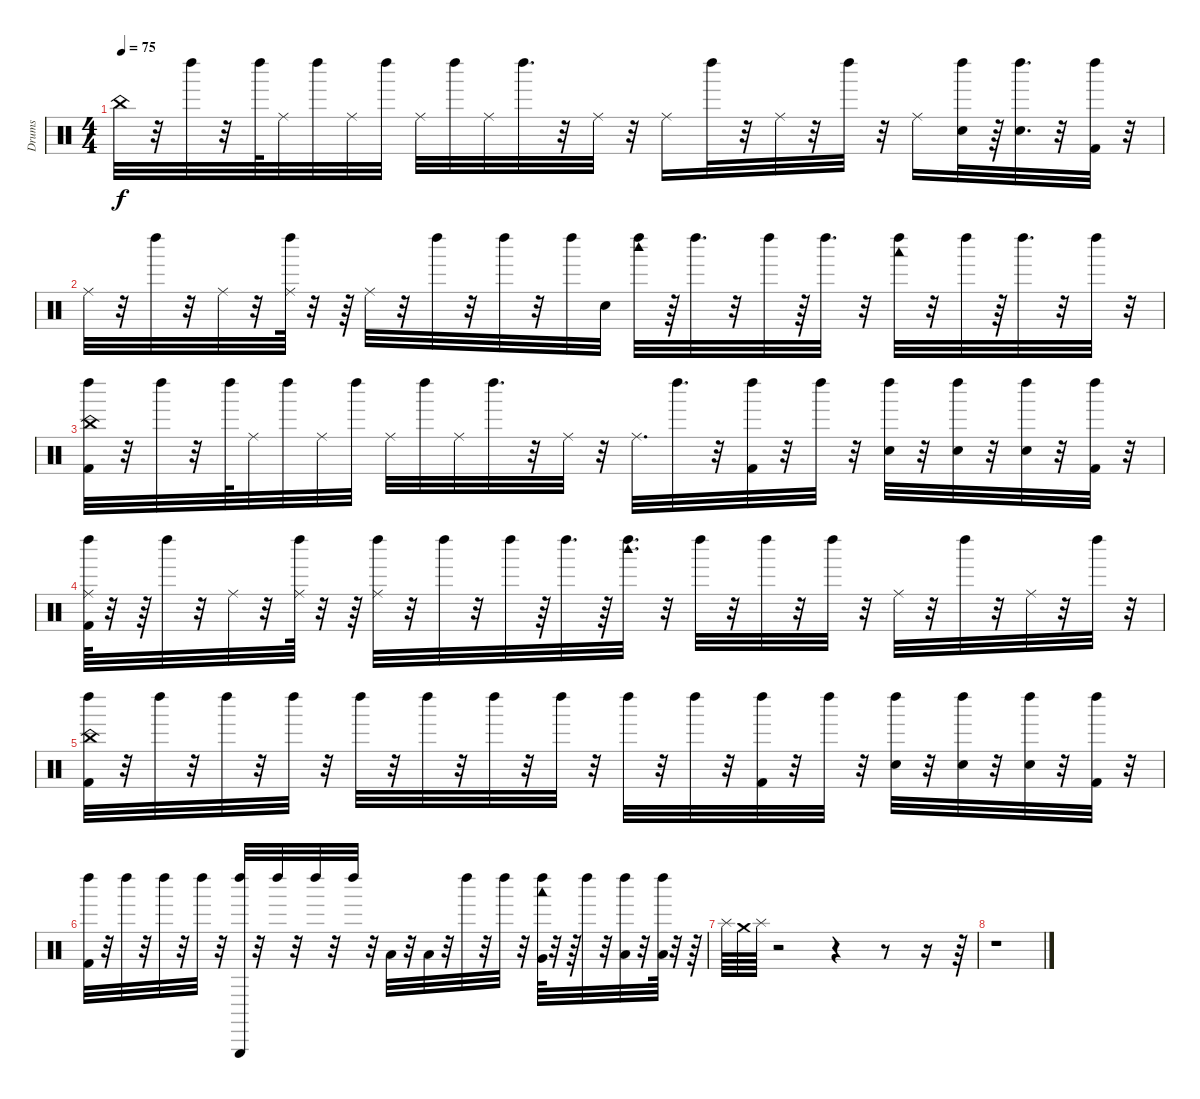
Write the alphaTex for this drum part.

\track ("Drums" "Drums") {instrument percussion}
\staff {score}
\articulation defaults
\ts (4 4)
\tempo 75
\clef neutral
\ks c "China (hit)".32{dy f}
r.32 "Left Maraca (hit)".32 r.32 "Left Maraca (hit)".64 "Ride (middle)".32 "Left Maraca (hit)".32 "Ride (middle)".32 "Left Maraca (hit)".32 "Ride (middle)".32 "Left Maraca (hit)".32 "Ride (middle)".32 "Left Maraca (hit)".32{d} r.32 "Ride (middle)".32 r.32 "Ride (middle)".16 "Left Maraca (hit)".32 r.32 "Ride (middle)".32 r.32 "Left Maraca (hit)".32 r.32 "Ride (middle)".16 ("Snare (hit) 2" "Left Maraca (hit)").32 r.64 ("Snare (hit) 2" "Left Maraca (hit)").32{d} r.32 ("Kick (hit) 2" "Left Maraca (hit)").32 r.32 |
"Ride (middle)".32 r.32 "Left Maraca (hit)".32 r.32 "Ride (middle)".32 r.32 ("Left Maraca (hit)" "Ride (middle)").64 r.32 r.64 "Ride (middle)".32 r.32 "Left Maraca (hit)".32 r.32 "Left Maraca (hit)".32 r.32 "Left Maraca (hit)".32 "Snare (hit) 2".32 ("Woodblock high (hit)" "Left Maraca (hit)").32 r.64 "Left Maraca (hit)".32{d} r.32 "Left Maraca (hit)".32 r.64 "Left Maraca (hit)".32{d} r.32 ("Woodblock low (hit)" "Left Maraca (hit)").32 r.32 "Left Maraca (hit)".32 r.64 "Left Maraca (hit)".32{d} r.32 "Left Maraca (hit)".32 r.32 |
("China (hit)" "Kick (hit) 2" "Left Maraca (hit)").32 r.32 "Left Maraca (hit)".32 r.32 "Left Maraca (hit)".64 "Ride (middle)".32 "Left Maraca (hit)".32 "Ride (middle)".32 "Left Maraca (hit)".32 "Ride (middle)".32 "Left Maraca (hit)".32 "Ride (middle)".32 "Left Maraca (hit)".32{d} r.32 "Ride (middle)".32 r.32 "Ride (middle)".32{d} "Left Maraca (hit)".32{d} r.32 ("Kick (hit) 2" "Left Maraca (hit)").32 r.32 "Left Maraca (hit)".32 r.32 ("Snare (hit) 2" "Left Maraca (hit)").32 r.32 ("Snare (hit) 2" "Left Maraca (hit)").32 r.32 ("Snare (hit) 2" "Left Maraca (hit)").32 r.32 ("Kick (hit) 2" "Left Maraca (hit)").32 r.32 |
("Kick (hit) 2" "Left Maraca (hit)" "Ride (middle)").64 r.32 r.64 "Left Maraca (hit)".32 r.32 "Ride (middle)".32 r.32 ("Left Maraca (hit)" "Ride (middle)").64 r.32 r.64 ("Left Maraca (hit)" "Ride (middle)").32 r.32 "Left Maraca (hit)".32 r.32 "Left Maraca (hit)".32 r.64 "Left Maraca (hit)".32{d} r.64 ("Woodblock high (hit)" "Left Maraca (hit)").32{d} r.32 "Left Maraca (hit)".32 r.32 "Left Maraca (hit)".32 r.32 "Left Maraca (hit)".32 r.32 "Ride (middle)".32 r.32 "Left Maraca (hit)".32 r.32 "Ride (middle)".32 r.32 "Left Maraca (hit)".32 r.32 |
("China (hit)" "Kick (hit) 2" "Left Maraca (hit)").32 r.32 "Left Maraca (hit)".32 r.32 "Left Maraca (hit)".32 r.32 "Left Maraca (hit)".32 r.32 "Left Maraca (hit)".32 r.32 "Left Maraca (hit)".32 r.32 "Left Maraca (hit)".32 r.32 "Left Maraca (hit)".32 r.32 "Left Maraca (hit)".32 r.32 "Left Maraca (hit)".32 r.32 ("Kick (hit) 2" "Left Maraca (hit)").32 r.32 "Left Maraca (hit)".32 r.32 ("Snare (hit) 2" "Left Maraca (hit)").32 r.32 ("Snare (hit) 2" "Left Maraca (hit)").32 r.32 ("Snare (hit) 2" "Left Maraca (hit)").32 r.32 ("Kick (hit) 2" "Left Maraca (hit)").32 r.32 |
("Kick (hit) 2" "Left Maraca (hit)").32 r.32 "Left Maraca (hit)".32 r.32 "Left Maraca (hit)".32 r.32 "Left Maraca (hit)".32 r.32 ("Triangle (hit)" "Left Maraca (hit)").32 r.32 "Left Maraca (hit)".32 r.32 "Left Maraca (hit)".32 r.32 "Left Maraca (hit)".32 r.32 "Low Tom (hit)".32 r.32 "Low Tom (hit)".32 r.32 "Left Maraca (hit)".32 r.32 "Left Maraca (hit)".32 r.32 ("Woodblock low (hit)" "Left Maraca (hit)" "Very Low Tom (hit)").64 r.32 r.64 "Left Maraca (hit)".32 r.32 ("Low Floor Tom (hit)" "Left Maraca (hit)").32 r.32 ("Left Maraca (hit)" "Low Floor Tom (hit)").64 r.32 r.64 |
"Splash (hit)".64 "Crash medium (hit)".64 "Splash (hit)".64 r.2 r.4 r.8 r.16 r.64 |
r.1
